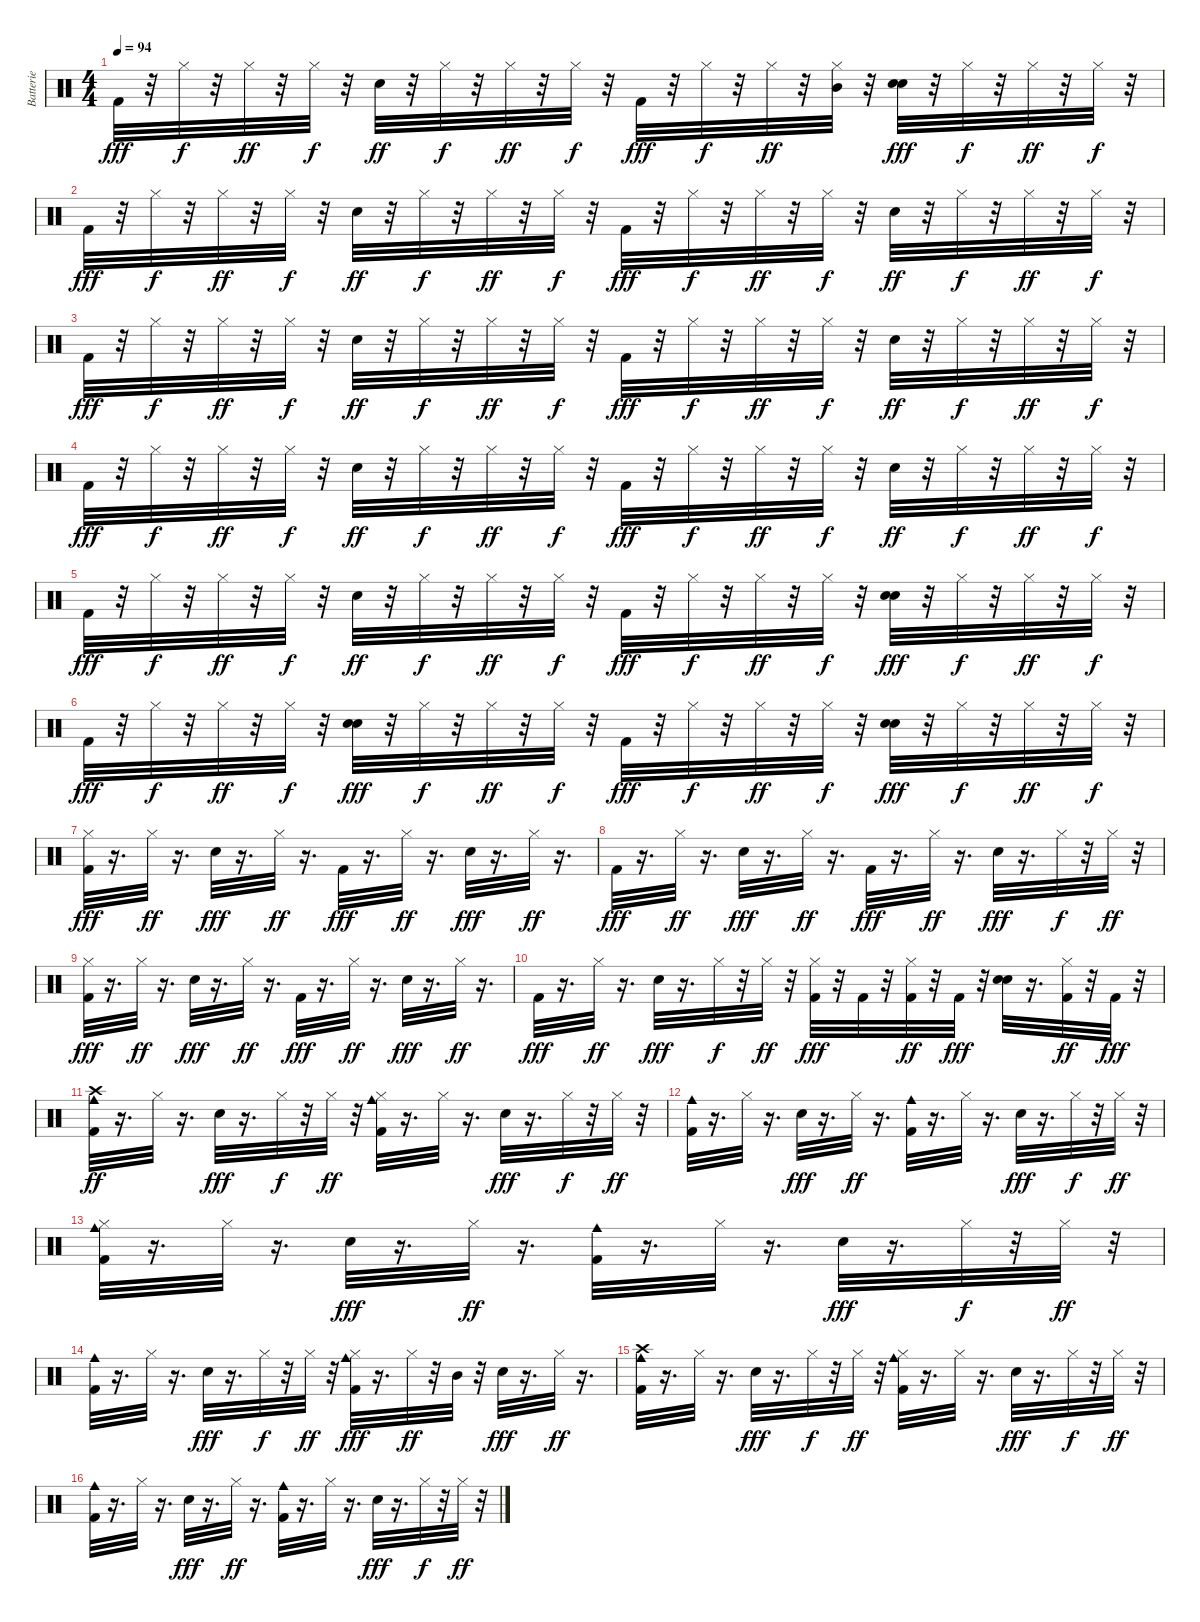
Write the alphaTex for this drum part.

\track ("Batterie" "Batterie") {instrument percussion}
\staff {score}
\articulation defaults
\ts (4 4)
\tempo 94
\clef neutral
\ks c "Kick (hit) 2".32{dy fff}
r.32 "Hi-Hat (closed)".32{dy f} r.32 "Hi-Hat (closed)".32{dy ff} r.32 "Hi-Hat (closed)".32{dy f} r.32 "Electric Snare (hit)".32{dy ff} r.32 "Hi-Hat (closed)".32{dy f} r.32 "Hi-Hat (closed)".32{dy ff} r.32 "Hi-Hat (closed)".32{dy f} r.32 "Kick (hit) 2".32{dy fff} r.32 "Hi-Hat (closed)".32{dy f} r.32 "Hi-Hat (closed)".32{dy ff} r.32 ("Hi-Hat (closed)" "Mid Tom (hit)").32 r.32 ("Electric Snare (hit)" "Hand Clap (hit)").32{dy fff} r.32 "Hi-Hat (closed)".32{dy f} r.32 "Hi-Hat (closed)".32{dy ff} r.32 "Hi-Hat (closed)".32{dy f} r.32 |
"Kick (hit) 2".32{dy fff} r.32 "Hi-Hat (closed)".32{dy f} r.32 "Hi-Hat (closed)".32{dy ff} r.32 "Hi-Hat (closed)".32{dy f} r.32 "Electric Snare (hit)".32{dy ff} r.32 "Hi-Hat (closed)".32{dy f} r.32 "Hi-Hat (closed)".32{dy ff} r.32 "Hi-Hat (closed)".32{dy f} r.32 "Kick (hit) 2".32{dy fff} r.32 "Hi-Hat (closed)".32{dy f} r.32 "Hi-Hat (closed)".32{dy ff} r.32 "Hi-Hat (closed)".32{dy f} r.32 "Electric Snare (hit)".32{dy ff} r.32 "Hi-Hat (closed)".32{dy f} r.32 "Hi-Hat (closed)".32{dy ff} r.32 "Hi-Hat (closed)".32{dy f} r.32 |
"Kick (hit) 2".32{dy fff} r.32 "Hi-Hat (closed)".32{dy f} r.32 "Hi-Hat (closed)".32{dy ff} r.32 "Hi-Hat (closed)".32{dy f} r.32 "Electric Snare (hit)".32{dy ff} r.32 "Hi-Hat (closed)".32{dy f} r.32 "Hi-Hat (closed)".32{dy ff} r.32 "Hi-Hat (closed)".32{dy f} r.32 "Kick (hit) 2".32{dy fff} r.32 "Hi-Hat (closed)".32{dy f} r.32 "Hi-Hat (closed)".32{dy ff} r.32 "Hi-Hat (closed)".32{dy f} r.32 "Electric Snare (hit)".32{dy ff} r.32 "Hi-Hat (closed)".32{dy f} r.32 "Hi-Hat (closed)".32{dy ff} r.32 "Hi-Hat (closed)".32{dy f} r.32 |
"Kick (hit) 2".32{dy fff} r.32 "Hi-Hat (closed)".32{dy f} r.32 "Hi-Hat (closed)".32{dy ff} r.32 "Hi-Hat (closed)".32{dy f} r.32 "Electric Snare (hit)".32{dy ff} r.32 "Hi-Hat (closed)".32{dy f} r.32 "Hi-Hat (closed)".32{dy ff} r.32 "Hi-Hat (closed)".32{dy f} r.32 "Kick (hit) 2".32{dy fff} r.32 "Hi-Hat (closed)".32{dy f} r.32 "Hi-Hat (closed)".32{dy ff} r.32 "Hi-Hat (closed)".32{dy f} r.32 "Electric Snare (hit)".32{dy ff} r.32 "Hi-Hat (closed)".32{dy f} r.32 "Hi-Hat (closed)".32{dy ff} r.32 "Hi-Hat (closed)".32{dy f} r.32 |
"Kick (hit) 2".32{dy fff} r.32 "Hi-Hat (closed)".32{dy f} r.32 "Hi-Hat (closed)".32{dy ff} r.32 "Hi-Hat (closed)".32{dy f} r.32 "Electric Snare (hit)".32{dy ff} r.32 "Hi-Hat (closed)".32{dy f} r.32 "Hi-Hat (closed)".32{dy ff} r.32 "Hi-Hat (closed)".32{dy f} r.32 "Kick (hit) 2".32{dy fff} r.32 "Hi-Hat (closed)".32{dy f} r.32 "Hi-Hat (closed)".32{dy ff} r.32 "Hi-Hat (closed)".32{dy f} r.32 ("Electric Snare (hit)" "Hand Clap (hit)").32{dy fff} r.32 "Hi-Hat (closed)".32{dy f} r.32 "Hi-Hat (closed)".32{dy ff} r.32 "Hi-Hat (closed)".32{dy f} r.32 |
"Kick (hit) 2".32{dy fff} r.32 "Hi-Hat (closed)".32{dy f} r.32 "Hi-Hat (closed)".32{dy ff} r.32 "Hi-Hat (closed)".32{dy f} r.32 ("Electric Snare (hit)" "Hand Clap (hit)").32{dy fff} r.32 "Hi-Hat (closed)".32{dy f} r.32 "Hi-Hat (closed)".32{dy ff} r.32 "Hi-Hat (closed)".32{dy f} r.32 "Kick (hit) 2".32{dy fff} r.32 "Hi-Hat (closed)".32{dy f} r.32 "Hi-Hat (closed)".32{dy ff} r.32 "Hi-Hat (closed)".32{dy f} r.32 ("Electric Snare (hit)" "Hand Clap (hit)").32{dy fff} r.32 "Hi-Hat (closed)".32{dy f} r.32 "Hi-Hat (closed)".32{dy ff} r.32 "Hi-Hat (closed)".32{dy f} r.32 |
("Kick (hit) 2" "Hi-Hat (closed)").32{dy fff} r.16{d} "Hi-Hat (closed)".32{dy ff} r.16{d} "Hand Clap (hit)".32{dy fff} r.16{d} "Hi-Hat (closed)".32{dy ff} r.16{d} "Kick (hit) 2".32{dy fff} r.16{d} "Hi-Hat (closed)".32{dy ff} r.16{d} "Hand Clap (hit)".32{dy fff} r.16{d} "Hi-Hat (closed)".32{dy ff} r.16{d} |
"Kick (hit) 2".32{dy fff} r.16{d} "Hi-Hat (closed)".32{dy ff} r.16{d} "Hand Clap (hit)".32{dy fff} r.16{d} "Hi-Hat (closed)".32{dy ff} r.16{d} "Kick (hit) 2".32{dy fff} r.16{d} "Hi-Hat (closed)".32{dy ff} r.16{d} "Hand Clap (hit)".32{dy fff} r.16{d} "Hi-Hat (closed)".32{dy f} r.32 "Hi-Hat (closed)".32{dy ff} r.32 |
("Kick (hit) 2" "Hi-Hat (closed)").32{dy fff} r.16{d} "Hi-Hat (closed)".32{dy ff} r.16{d} "Hand Clap (hit)".32{dy fff} r.16{d} "Hi-Hat (closed)".32{dy ff} r.16{d} "Kick (hit) 2".32{dy fff} r.16{d} "Hi-Hat (closed)".32{dy ff} r.16{d} "Hand Clap (hit)".32{dy fff} r.16{d} "Hi-Hat (closed)".32{dy ff} r.16{d} |
"Kick (hit) 2".32{dy fff} r.16{d} "Hi-Hat (closed)".32{dy ff} r.16{d} "Hand Clap (hit)".32{dy fff} r.16{d} "Hi-Hat (closed)".32{dy f} r.32 "Hi-Hat (closed)".32{dy ff} r.32 ("Kick (hit) 2" "Hi-Hat (closed)").32{dy fff} r.32 "Kick (hit) 2".32 r.32 ("Kick (hit) 2" "Hi-Hat (closed)").32{dy ff} r.32 "Kick (hit) 2".32{dy fff} r.32 ("Electric Snare (hit)" "Hand Clap (hit)").32 r.16{d} ("Kick (hit) 2" "Hi-Hat (closed)").32{dy ff} r.32 "Kick (hit) 2".32{dy fff} r.32 |
("Kick (hit) 2" "Crash high (hit)" "Cowbell medium (hit)").32{dy ff} r.16{d} "Hi-Hat (closed)".32 r.16{d} "Hand Clap (hit)".32{dy fff} r.16{d} "Hi-Hat (closed)".32{dy f} r.32 "Hi-Hat (closed)".32{dy ff} r.32 ("Kick (hit) 2" "Hi-Hat (closed)" "Cowbell medium (hit)").32 r.16{d} "Hi-Hat (closed)".32 r.16{d} "Hand Clap (hit)".32{dy fff} r.16{d} "Hi-Hat (closed)".32{dy f} r.32 "Hi-Hat (closed)".32{dy ff} r.32 |
("Kick (hit) 2" "Cowbell medium (hit)").32 r.16{d} "Hi-Hat (closed)".32 r.16{d} "Hand Clap (hit)".32{dy fff} r.16{d} "Hi-Hat (closed)".32{dy ff} r.16{d} ("Kick (hit) 2" "Cowbell medium (hit)").32 r.16{d} "Hi-Hat (closed)".32 r.16{d} "Hand Clap (hit)".32{dy fff} r.16{d} "Hi-Hat (closed)".32{dy f} r.32 "Hi-Hat (closed)".32{dy ff} r.32 |
("Kick (hit) 2" "Hi-Hat (closed)" "Cowbell medium (hit)").32 r.16{d} "Hi-Hat (closed)".32 r.16{d} "Hand Clap (hit)".32{dy fff} r.16{d} "Hi-Hat (closed)".32{dy ff} r.16{d} ("Kick (hit) 2" "Cowbell medium (hit)").32 r.16{d} "Hi-Hat (closed)".32 r.16{d} "Hand Clap (hit)".32{dy fff} r.16{d} "Hi-Hat (closed)".32{dy f} r.32 "Hi-Hat (closed)".32{dy ff} r.32 |
("Kick (hit) 2" "Cowbell medium (hit)").32 r.16{d} "Hi-Hat (closed)".32 r.16{d} "Hand Clap (hit)".32{dy fff} r.16{d} "Hi-Hat (closed)".32{dy f} r.32 "Hi-Hat (closed)".32{dy ff} r.32 ("Hi-Hat (closed)" "Cowbell medium (hit)" "Kick (hit) 2").32{dy fff} r.16{d} "Hi-Hat (closed)".32{dy ff} r.32 "Mid Tom (hit)".32 r.32 "Hand Clap (hit)".32{dy fff} r.16{d} "Hi-Hat (closed)".32{dy ff} r.16{d} |
("Kick (hit) 2" "Crash high (hit)" "Cowbell medium (hit)").32 r.16{d} "Hi-Hat (closed)".32 r.16{d} "Hand Clap (hit)".32{dy fff} r.16{d} "Hi-Hat (closed)".32{dy f} r.32 "Hi-Hat (closed)".32{dy ff} r.32 ("Kick (hit) 2" "Hi-Hat (closed)" "Cowbell medium (hit)").32 r.16{d} "Hi-Hat (closed)".32 r.16{d} "Hand Clap (hit)".32{dy fff} r.16{d} "Hi-Hat (closed)".32{dy f} r.32 "Hi-Hat (closed)".32{dy ff} r.32 |
("Kick (hit) 2" "Cowbell medium (hit)").32 r.16{d} "Hi-Hat (closed)".32 r.16{d} "Hand Clap (hit)".32{dy fff} r.16{d} "Hi-Hat (closed)".32{dy ff} r.16{d} ("Kick (hit) 2" "Cowbell medium (hit)").32 r.16{d} "Hi-Hat (closed)".32 r.16{d} "Hand Clap (hit)".32{dy fff} r.16{d} "Hi-Hat (closed)".32{dy f} r.32 "Hi-Hat (closed)".32{dy ff} r.32
